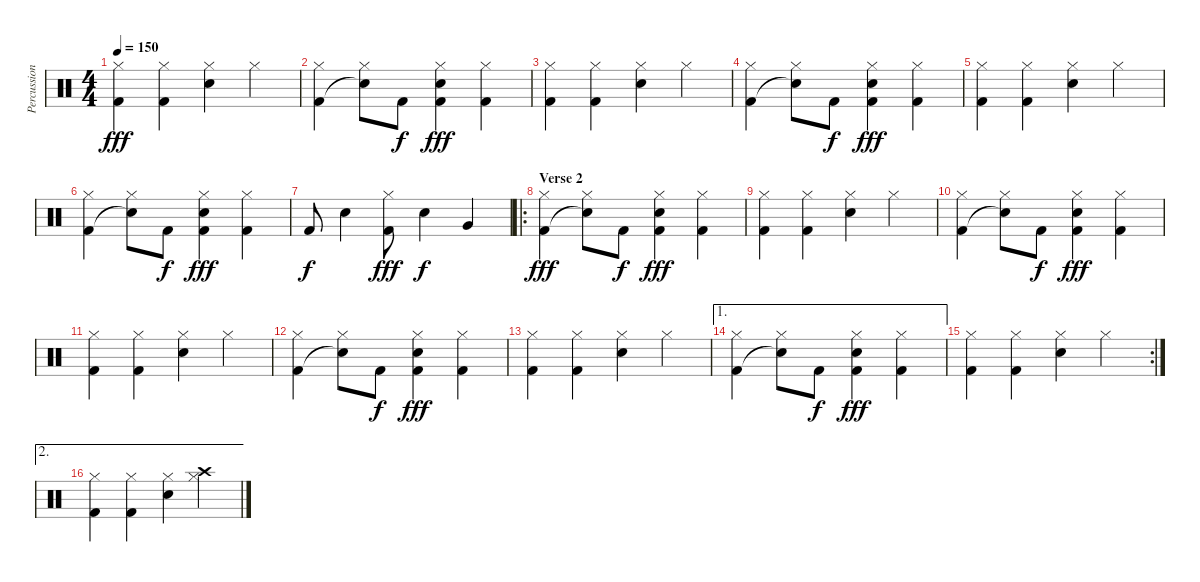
\track ("Percussion" "Percussion") {instrument percussion}
\staff {score}
\articulation defaults
\ts (4 4)
\tempo 150
\clef neutral
\ks c
("Hi-Hat (closed)" "Kick (hit) 2").4{dy fff} ("Hi-Hat (closed)" "Kick (hit) 2").4 ("Electric Snare (hit)" "Hi-Hat (closed)").4 "Hi-Hat (closed)".4 |
("Hi-Hat (closed)" "Kick (hit) 2").4 ("Hi-Hat (closed)" "Snare (hit)"{t}).8 "Kick (hit) 2".8{dy f} ("Electric Snare (hit)" "Hi-Hat (closed)" "Kick (hit) 2").4{dy fff} ("Hi-Hat (closed)" "Kick (hit) 2").4 |
("Hi-Hat (closed)" "Kick (hit) 2").4 ("Hi-Hat (closed)" "Kick (hit) 2").4 ("Electric Snare (hit)" "Hi-Hat (closed)").4 "Hi-Hat (closed)".4 |
("Hi-Hat (closed)" "Kick (hit) 2").4 ("Hi-Hat (closed)" "Snare (hit)"{t}).8 "Kick (hit) 2".8{dy f} ("Electric Snare (hit)" "Hi-Hat (closed)" "Kick (hit) 2").4{dy fff} ("Hi-Hat (closed)" "Kick (hit) 2").4 |
("Hi-Hat (closed)" "Kick (hit) 2").4 ("Hi-Hat (closed)" "Kick (hit) 2").4 ("Electric Snare (hit)" "Hi-Hat (closed)").4 "Hi-Hat (closed)".4 |
("Hi-Hat (closed)" "Kick (hit) 2").4 ("Hi-Hat (closed)" "Snare (hit)"{t}).8 "Kick (hit) 2".8{dy f} ("Electric Snare (hit)" "Hi-Hat (closed)" "Kick (hit) 2").4{dy fff} ("Hi-Hat (closed)" "Kick (hit) 2").4 |
"Kick (hit) 2".8{dy f} "Electric Snare (hit)".4 ("Hi-Hat (closed)" "Kick (hit) 2").8{dy fff} "Electric Snare (hit)".4{dy f} "Very Low Tom (hit)".4 |
\ro
\section ("" "Verse 2")
("Hi-Hat (closed)" "Kick (hit) 2").4{dy fff} ("Hi-Hat (closed)" "Snare (hit)"{t}).8 "Kick (hit) 2".8{dy f} ("Electric Snare (hit)" "Hi-Hat (closed)" "Kick (hit) 2").4{dy fff} ("Hi-Hat (closed)" "Kick (hit) 2").4 |
("Hi-Hat (closed)" "Kick (hit) 2").4 ("Hi-Hat (closed)" "Kick (hit) 2").4 ("Electric Snare (hit)" "Hi-Hat (closed)").4 "Hi-Hat (closed)".4 |
("Hi-Hat (closed)" "Kick (hit) 2").4 ("Hi-Hat (closed)" "Snare (hit)"{t}).8 "Kick (hit) 2".8{dy f} ("Electric Snare (hit)" "Hi-Hat (closed)" "Kick (hit) 2").4{dy fff} ("Hi-Hat (closed)" "Kick (hit) 2").4 |
("Hi-Hat (closed)" "Kick (hit) 2").4 ("Hi-Hat (closed)" "Kick (hit) 2").4 ("Electric Snare (hit)" "Hi-Hat (closed)").4 "Hi-Hat (closed)".4 |
("Hi-Hat (closed)" "Kick (hit) 2").4 ("Hi-Hat (closed)" "Snare (hit)"{t}).8 "Kick (hit) 2".8{dy f} ("Electric Snare (hit)" "Hi-Hat (closed)" "Kick (hit) 2").4{dy fff} ("Hi-Hat (closed)" "Kick (hit) 2").4 |
("Hi-Hat (closed)" "Kick (hit) 2").4 ("Hi-Hat (closed)" "Kick (hit) 2").4 ("Electric Snare (hit)" "Hi-Hat (closed)").4 "Hi-Hat (closed)".4 |
\ae 1
("Hi-Hat (closed)" "Kick (hit) 2").4 ("Hi-Hat (closed)" "Snare (hit)"{t}).8 "Kick (hit) 2".8{dy f} ("Electric Snare (hit)" "Hi-Hat (closed)" "Kick (hit) 2").4{dy fff} ("Hi-Hat (closed)" "Kick (hit) 2").4 |
\rc 2
("Hi-Hat (closed)" "Kick (hit) 2").4 ("Hi-Hat (closed)" "Kick (hit) 2").4 ("Electric Snare (hit)" "Hi-Hat (closed)").4 "Hi-Hat (closed)".4 |
\ae 2
("Hi-Hat (closed)" "Kick (hit) 2").4 ("Hi-Hat (closed)" "Kick (hit) 2").4 ("Electric Snare (hit)" "Hi-Hat (closed)").4 ("Crash high (hit)" "Hi-Hat (closed)").4
